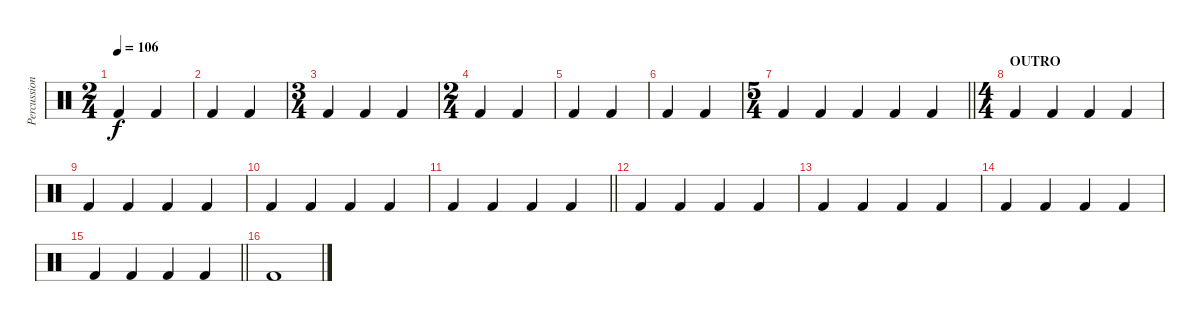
\track ("Percussion" "Percussion") {instrument percussion}
\staff {score}
\articulation defaults
\ts (2 4)
\tempo 106
\clef neutral
\ks c "Kick (hit) 2".4{dy f} "Kick (hit) 2".4
|
"Kick (hit) 2".4 "Kick (hit) 2".4 |
\ts (3 4)
"Kick (hit) 2".4 "Kick (hit) 2".4 "Kick (hit) 2".4 |
\ts (2 4)
"Kick (hit) 2".4 "Kick (hit) 2".4 |
"Kick (hit) 2".4 "Kick (hit) 2".4 |
"Kick (hit) 2".4 "Kick (hit) 2".4 |
\ts (5 4)
\barLineRight lightlight "Kick (hit) 2".4 "Kick (hit) 2".4 "Kick (hit) 2".4 "Kick (hit) 2".4 "Kick (hit) 2".4
|
\ts (4 4)
\section ("" "OUTRO")
"Kick (hit) 2".4 "Kick (hit) 2".4 "Kick (hit) 2".4 "Kick (hit) 2".4 |
"Kick (hit) 2".4 "Kick (hit) 2".4 "Kick (hit) 2".4 "Kick (hit) 2".4 |
"Kick (hit) 2".4 "Kick (hit) 2".4 "Kick (hit) 2".4 "Kick (hit) 2".4 |
\barLineRight lightlight "Kick (hit) 2".4 "Kick (hit) 2".4 "Kick (hit) 2".4 "Kick (hit) 2".4
|
"Kick (hit) 2".4 "Kick (hit) 2".4 "Kick (hit) 2".4 "Kick (hit) 2".4 |
"Kick (hit) 2".4 "Kick (hit) 2".4 "Kick (hit) 2".4 "Kick (hit) 2".4 |
"Kick (hit) 2".4 "Kick (hit) 2".4 "Kick (hit) 2".4 "Kick (hit) 2".4 |
\barLineRight lightlight "Kick (hit) 2".4 "Kick (hit) 2".4 "Kick (hit) 2".4 "Kick (hit) 2".4
|
"Kick (hit) 2".1
